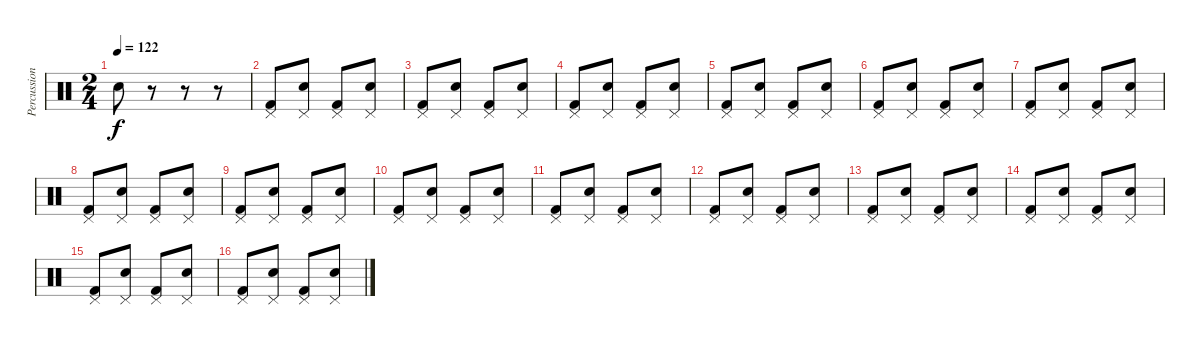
\track ("Percussion" "Percussion") {instrument percussion}
\staff {score}
\articulation defaults
\ts (2 4)
\tempo 122
\clef neutral
\ks c "Snare (hit) 2".8{dy f}
r.8 r.8 r.8 |
("Pedal Hi-Hat (hit)" "Kick (hit) 2").8 ("Pedal Hi-Hat (hit)" "Snare (hit) 2").8 ("Pedal Hi-Hat (hit)" "Kick (hit) 2").8 ("Pedal Hi-Hat (hit)" "Snare (hit) 2").8 |
("Pedal Hi-Hat (hit)" "Kick (hit) 2").8 ("Pedal Hi-Hat (hit)" "Snare (hit) 2").8 ("Pedal Hi-Hat (hit)" "Kick (hit) 2").8 ("Pedal Hi-Hat (hit)" "Snare (hit) 2").8 |
("Pedal Hi-Hat (hit)" "Kick (hit) 2").8 ("Pedal Hi-Hat (hit)" "Snare (hit) 2").8 ("Pedal Hi-Hat (hit)" "Kick (hit) 2").8 ("Pedal Hi-Hat (hit)" "Snare (hit) 2").8 |
("Pedal Hi-Hat (hit)" "Kick (hit) 2").8 ("Pedal Hi-Hat (hit)" "Snare (hit) 2").8 ("Pedal Hi-Hat (hit)" "Kick (hit) 2").8 ("Pedal Hi-Hat (hit)" "Snare (hit) 2").8 |
("Pedal Hi-Hat (hit)" "Kick (hit) 2").8 ("Pedal Hi-Hat (hit)" "Snare (hit) 2").8 ("Pedal Hi-Hat (hit)" "Kick (hit) 2").8 ("Pedal Hi-Hat (hit)" "Snare (hit) 2").8 |
("Pedal Hi-Hat (hit)" "Kick (hit) 2").8 ("Pedal Hi-Hat (hit)" "Snare (hit) 2").8 ("Pedal Hi-Hat (hit)" "Kick (hit) 2").8 ("Pedal Hi-Hat (hit)" "Snare (hit) 2").8 |
("Pedal Hi-Hat (hit)" "Kick (hit) 2").8 ("Pedal Hi-Hat (hit)" "Snare (hit) 2").8 ("Pedal Hi-Hat (hit)" "Kick (hit) 2").8 ("Pedal Hi-Hat (hit)" "Snare (hit) 2").8 |
("Pedal Hi-Hat (hit)" "Kick (hit) 2").8 ("Pedal Hi-Hat (hit)" "Snare (hit) 2").8 ("Pedal Hi-Hat (hit)" "Kick (hit) 2").8 ("Pedal Hi-Hat (hit)" "Snare (hit) 2").8 |
("Pedal Hi-Hat (hit)" "Kick (hit) 2").8 ("Pedal Hi-Hat (hit)" "Snare (hit) 2").8 ("Pedal Hi-Hat (hit)" "Kick (hit) 2").8 ("Pedal Hi-Hat (hit)" "Snare (hit) 2").8 |
("Pedal Hi-Hat (hit)" "Kick (hit) 2").8 ("Pedal Hi-Hat (hit)" "Snare (hit) 2").8 ("Pedal Hi-Hat (hit)" "Kick (hit) 2").8 ("Pedal Hi-Hat (hit)" "Snare (hit) 2").8 |
("Pedal Hi-Hat (hit)" "Kick (hit) 2").8 ("Pedal Hi-Hat (hit)" "Snare (hit) 2").8 ("Pedal Hi-Hat (hit)" "Kick (hit) 2").8 ("Pedal Hi-Hat (hit)" "Snare (hit) 2").8 |
("Pedal Hi-Hat (hit)" "Kick (hit) 2").8 ("Pedal Hi-Hat (hit)" "Snare (hit) 2").8 ("Pedal Hi-Hat (hit)" "Kick (hit) 2").8 ("Pedal Hi-Hat (hit)" "Snare (hit) 2").8 |
("Pedal Hi-Hat (hit)" "Kick (hit) 2").8 ("Pedal Hi-Hat (hit)" "Snare (hit) 2").8 ("Pedal Hi-Hat (hit)" "Kick (hit) 2").8 ("Pedal Hi-Hat (hit)" "Snare (hit) 2").8 |
("Pedal Hi-Hat (hit)" "Kick (hit) 2").8 ("Pedal Hi-Hat (hit)" "Snare (hit) 2").8 ("Pedal Hi-Hat (hit)" "Kick (hit) 2").8 ("Pedal Hi-Hat (hit)" "Snare (hit) 2").8 |
("Pedal Hi-Hat (hit)" "Kick (hit) 2").8 ("Pedal Hi-Hat (hit)" "Snare (hit) 2").8 ("Pedal Hi-Hat (hit)" "Kick (hit) 2").8 ("Pedal Hi-Hat (hit)" "Snare (hit) 2").8
